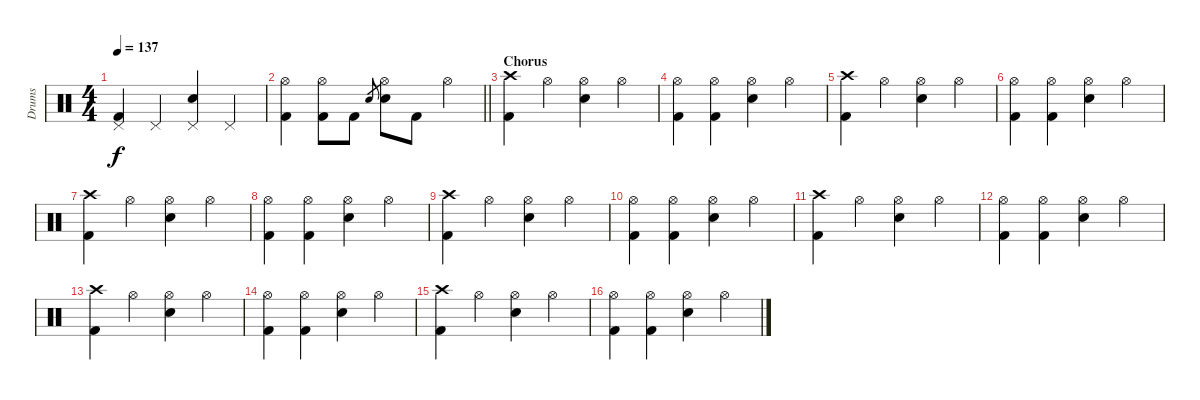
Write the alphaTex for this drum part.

\track ("Drums" "Drums") {instrument percussion}
\staff {score}
\articulation defaults
\ts (4 4)
\section ("" "")
\tempo 137
\clef neutral
\ks c
("Pedal Hi-Hat (hit)" "Kick (hit) 2").4{dy f} "Pedal Hi-Hat (hit)".4 ("Pedal Hi-Hat (hit)" "Snare (hit) 2").4 "Pedal Hi-Hat (hit)".4 |
\barLineRight lightlight
("Hi-Hat (open)" "Kick (hit) 2").4 ("Hi-Hat (open)" "Kick (hit) 2").8 "Kick (hit) 2".8 "Snare (hit) 2".8{gr} ("Hi-Hat (open)" "Snare (hit) 2").8 "Kick (hit) 2".8 "Hi-Hat (open)".4 |
\section ("" "Chorus")
("Crash high (hit)" "Kick (hit) 2").4 "Hi-Hat (open)".4 ("Hi-Hat (open)" "Snare (hit) 2").4 "Hi-Hat (open)".4 |
("Hi-Hat (open)" "Kick (hit) 2").4 ("Hi-Hat (open)" "Kick (hit) 2").4 ("Hi-Hat (open)" "Snare (hit) 2").4 "Hi-Hat (open)".4 |
("Crash high (hit)" "Kick (hit) 2").4 "Hi-Hat (open)".4 ("Hi-Hat (open)" "Snare (hit) 2").4 "Hi-Hat (open)".4 |
("Hi-Hat (open)" "Kick (hit) 2").4 ("Hi-Hat (open)" "Kick (hit) 2").4 ("Hi-Hat (open)" "Snare (hit) 2").4 "Hi-Hat (open)".4 |
("Crash high (hit)" "Kick (hit) 2").4 "Hi-Hat (open)".4 ("Hi-Hat (open)" "Snare (hit) 2").4 "Hi-Hat (open)".4 |
("Hi-Hat (open)" "Kick (hit) 2").4 ("Hi-Hat (open)" "Kick (hit) 2").4 ("Hi-Hat (open)" "Snare (hit) 2").4 "Hi-Hat (open)".4 |
("Crash high (hit)" "Kick (hit) 2").4 "Hi-Hat (open)".4 ("Hi-Hat (open)" "Snare (hit) 2").4 "Hi-Hat (open)".4 |
("Hi-Hat (open)" "Kick (hit) 2").4 ("Hi-Hat (open)" "Kick (hit) 2").4 ("Hi-Hat (open)" "Snare (hit) 2").4 "Hi-Hat (open)".4 |
("Crash high (hit)" "Kick (hit) 2").4 "Hi-Hat (open)".4 ("Hi-Hat (open)" "Snare (hit) 2").4 "Hi-Hat (open)".4 |
("Hi-Hat (open)" "Kick (hit) 2").4 ("Hi-Hat (open)" "Kick (hit) 2").4 ("Hi-Hat (open)" "Snare (hit) 2").4 "Hi-Hat (open)".4 |
("Crash high (hit)" "Kick (hit) 2").4 "Hi-Hat (open)".4 ("Hi-Hat (open)" "Snare (hit) 2").4 "Hi-Hat (open)".4 |
("Hi-Hat (open)" "Kick (hit) 2").4 ("Hi-Hat (open)" "Kick (hit) 2").4 ("Hi-Hat (open)" "Snare (hit) 2").4 "Hi-Hat (open)".4 |
("Crash high (hit)" "Kick (hit) 2").4 "Hi-Hat (open)".4 ("Hi-Hat (open)" "Snare (hit) 2").4 "Hi-Hat (open)".4 |
("Hi-Hat (open)" "Kick (hit) 2").4 ("Hi-Hat (open)" "Kick (hit) 2").4 ("Hi-Hat (open)" "Snare (hit) 2").4 "Hi-Hat (open)".4
